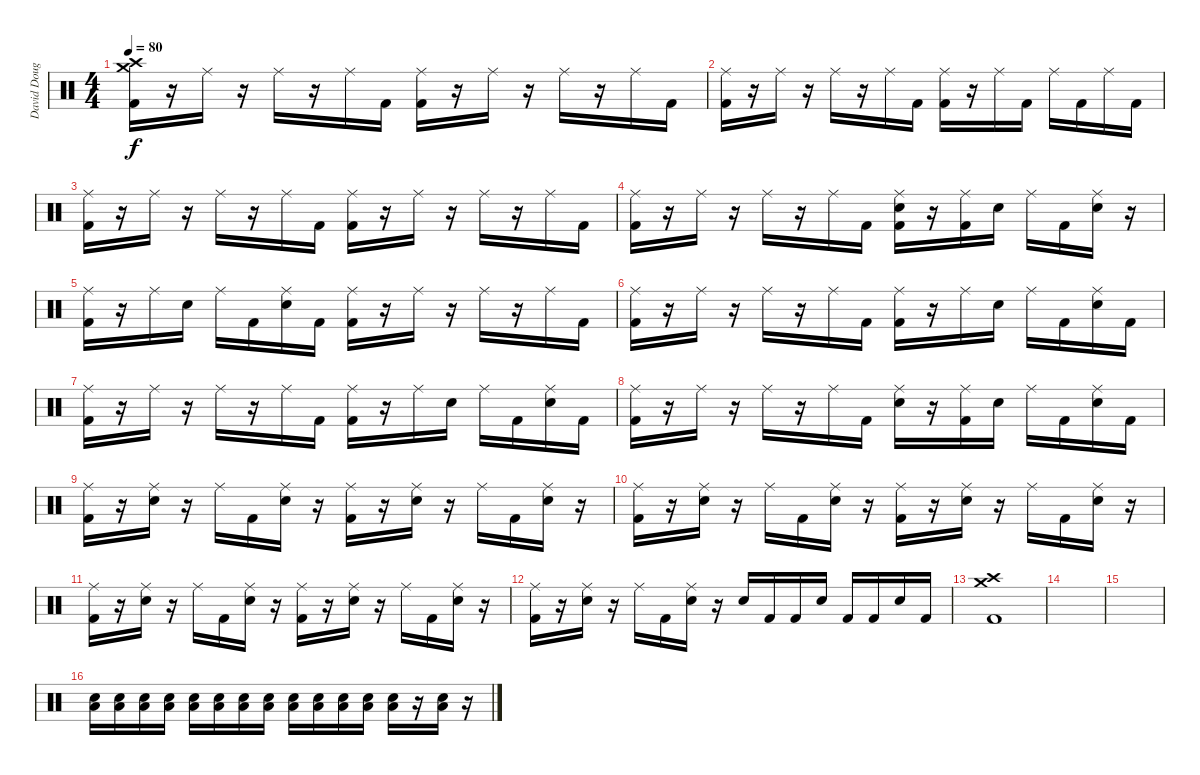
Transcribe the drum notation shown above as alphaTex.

\track ("David Douglas" "David Doug") {instrument percussion}
\staff {score}
\articulation defaults
\ts (4 4)
\tempo 80
\clef neutral
\ks c
("Crash medium (hit)" "Crash high (hit)" "Kick (hit) 2").16{dy f} r.16 "Ride (middle)".16 r.16 "Ride (middle)".16 r.16 "Ride (middle)".16 "Kick (hit) 2".16 ("Ride (middle)" "Kick (hit) 2").16 r.16 "Ride (middle)".16 r.16 "Ride (middle)".16 r.16 "Ride (middle)".16 "Kick (hit) 2".16 |
("Ride (middle)" "Kick (hit) 2").16 r.16 "Ride (middle)".16 r.16 "Ride (middle)".16 r.16 "Ride (middle)".16 "Kick (hit) 2".16 ("Ride (middle)" "Kick (hit) 2").16 r.16 "Ride (middle)".16 "Kick (hit) 2".16 "Ride (middle)".16 "Kick (hit) 2".16 "Ride (middle)".16 "Kick (hit) 2".16 |
("Ride (middle)" "Kick (hit) 2").16 r.16 "Ride (middle)".16 r.16 "Ride (middle)".16 r.16 "Ride (middle)".16 "Kick (hit) 2".16 ("Ride (middle)" "Kick (hit) 2").16 r.16 "Ride (middle)".16 r.16 "Ride (middle)".16 r.16 "Ride (middle)".16 "Kick (hit) 2".16 |
("Ride (middle)" "Kick (hit) 2").16 r.16 "Ride (middle)".16 r.16 "Ride (middle)".16 r.16 "Ride (middle)".16 "Kick (hit) 2".16 ("Ride (middle)" "Electric Snare (hit)" "Kick (hit) 2").16 r.16 ("Ride (middle)" "Kick (hit) 2").16 "Electric Snare (hit)".16 "Ride (middle)".16 "Kick (hit) 2".16 ("Ride (middle)" "Electric Snare (hit)").16 r.16 |
("Ride (middle)" "Kick (hit) 2").16 r.16 "Ride (middle)".16 "Electric Snare (hit)".16 "Ride (middle)".16 "Kick (hit) 2".16 ("Ride (middle)" "Electric Snare (hit)").16 "Kick (hit) 2".16 ("Ride (middle)" "Kick (hit) 2").16 r.16 "Ride (middle)".16 r.16 "Ride (middle)".16 r.16 "Ride (middle)".16 "Kick (hit) 2".16 |
("Ride (middle)" "Kick (hit) 2").16 r.16 "Ride (middle)".16 r.16 "Ride (middle)".16 r.16 "Ride (middle)".16 "Kick (hit) 2".16 ("Ride (middle)" "Kick (hit) 2").16 r.16 "Ride (middle)".16 "Electric Snare (hit)".16 "Ride (middle)".16 "Kick (hit) 2".16 ("Ride (middle)" "Electric Snare (hit)").16 "Kick (hit) 2".16 |
("Ride (middle)" "Kick (hit) 2").16 r.16 "Ride (middle)".16 r.16 "Ride (middle)".16 r.16 "Ride (middle)".16 "Kick (hit) 2".16 ("Ride (middle)" "Kick (hit) 2").16 r.16 "Ride (middle)".16 "Electric Snare (hit)".16 "Ride (middle)".16 "Kick (hit) 2".16 ("Ride (middle)" "Electric Snare (hit)").16 "Kick (hit) 2".16 |
("Ride (middle)" "Kick (hit) 2").16 r.16 "Ride (middle)".16 r.16 "Ride (middle)".16 r.16 "Ride (middle)".16 "Kick (hit) 2".16 ("Ride (middle)" "Electric Snare (hit)").16 r.16 ("Ride (middle)" "Kick (hit) 2").16 "Electric Snare (hit)".16 "Ride (middle)".16 "Kick (hit) 2".16 ("Ride (middle)" "Electric Snare (hit)").16 "Kick (hit) 2".16 |
("Ride (middle)" "Kick (hit) 2").16 r.16 ("Ride (middle)" "Electric Snare (hit)").16 r.16 "Ride (middle)".16 "Kick (hit) 2".16 ("Ride (middle)" "Electric Snare (hit)").16 r.16 ("Ride (middle)" "Kick (hit) 2").16 r.16 ("Ride (middle)" "Electric Snare (hit)").16 r.16 "Ride (middle)".16 "Kick (hit) 2".16 ("Ride (middle)" "Electric Snare (hit)").16 r.16 |
("Ride (middle)" "Kick (hit) 2").16 r.16 ("Ride (middle)" "Electric Snare (hit)").16 r.16 "Ride (middle)".16 "Kick (hit) 2".16 ("Ride (middle)" "Electric Snare (hit)").16 r.16 ("Ride (middle)" "Kick (hit) 2").16 r.16 ("Ride (middle)" "Electric Snare (hit)").16 r.16 "Ride (middle)".16 "Kick (hit) 2".16 ("Ride (middle)" "Electric Snare (hit)").16 r.16 |
("Ride (middle)" "Kick (hit) 2").16 r.16 ("Ride (middle)" "Electric Snare (hit)").16 r.16 "Ride (middle)".16 "Kick (hit) 2".16 ("Ride (middle)" "Electric Snare (hit)").16 r.16 ("Ride (middle)" "Kick (hit) 2").16 r.16 ("Ride (middle)" "Electric Snare (hit)").16 r.16 "Ride (middle)".16 "Kick (hit) 2".16 ("Ride (middle)" "Electric Snare (hit)").16 r.16 |
("Ride (middle)" "Kick (hit) 2").16 r.16 ("Ride (middle)" "Electric Snare (hit)").16 r.16 "Ride (middle)".16 "Kick (hit) 2".16 ("Ride (middle)" "Electric Snare (hit)").16 r.16 "Electric Snare (hit)".16 "Kick (hit) 2".16 "Kick (hit) 2".16 "Electric Snare (hit)".16 "Kick (hit) 2".16 "Kick (hit) 2".16 "Electric Snare (hit)".16 "Kick (hit) 2".16 |
("Crash high (hit)" "Crash medium (hit)" "Kick (hit) 2").1 |
|
|
("Low Tom (hit)" "Electric Snare (hit)").16 ("Low Tom (hit)" "Electric Snare (hit)").16 ("Low Tom (hit)" "Electric Snare (hit)").16 ("Low Tom (hit)" "Electric Snare (hit)").16 ("Low Tom (hit)" "Electric Snare (hit)").16 ("Low Tom (hit)" "Electric Snare (hit)").16 ("Low Tom (hit)" "Electric Snare (hit)").16 ("Low Tom (hit)" "Electric Snare (hit)").16 ("Low Tom (hit)" "Electric Snare (hit)").16 ("Low Tom (hit)" "Electric Snare (hit)").16 ("Low Tom (hit)" "Electric Snare (hit)").16 ("Low Tom (hit)" "Electric Snare (hit)").16 ("Low Tom (hit)" "Electric Snare (hit)").16 r.16 ("Low Tom (hit)" "Electric Snare (hit)").16 r.16
